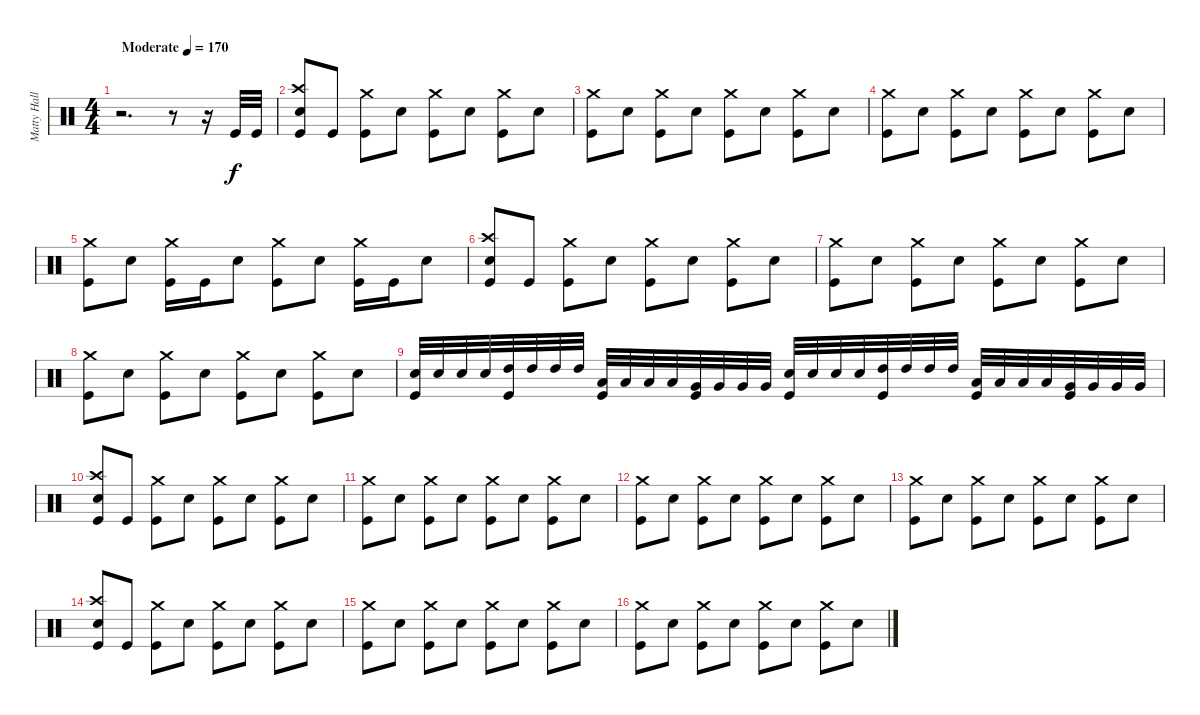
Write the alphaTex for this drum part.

\track ("Matty Hallick - Drums" "Matty Hall") {instrument percussion}
\staff {score}
\articulation defaults
\ts (4 4)
\tempo (170 "Moderate")
\clef neutral
\ks c
r.2{d dy f} r.8 r.16 "Kick (hit)".32 "Kick (hit)".32 |
("Crash high (hit)" "Snare (hit) 2" "Kick (hit)").8 "Kick (hit)".8 ("Crash medium (hit)" "Kick (hit)").8 "Snare (hit) 2".8 ("Crash medium (hit)" "Kick (hit)").8 "Snare (hit) 2".8 ("Crash medium (hit)" "Kick (hit)").8 "Snare (hit) 2".8 |
("Crash medium (hit)" "Kick (hit)").8 "Snare (hit) 2".8 ("Crash medium (hit)" "Kick (hit)").8 "Snare (hit) 2".8 ("Crash medium (hit)" "Kick (hit)").8 "Snare (hit) 2".8 ("Crash medium (hit)" "Kick (hit)").8 "Snare (hit) 2".8 |
("Crash medium (hit)" "Kick (hit)").8 "Snare (hit) 2".8 ("Crash medium (hit)" "Kick (hit)").8 "Snare (hit) 2".8 ("Crash medium (hit)" "Kick (hit)").8 "Snare (hit) 2".8 ("Crash medium (hit)" "Kick (hit)").8 "Snare (hit) 2".8 |
("Crash medium (hit)" "Kick (hit)").8 "Snare (hit) 2".8 ("Crash medium (hit)" "Kick (hit)").16 "Kick (hit)".16 "Snare (hit) 2".8 ("Crash medium (hit)" "Kick (hit)").8 "Snare (hit) 2".8 ("Crash medium (hit)" "Kick (hit)").16 "Kick (hit)".16 "Snare (hit) 2".8 |
("Crash high (hit)" "Snare (hit) 2" "Kick (hit)").8 "Kick (hit)".8 ("Crash medium (hit)" "Kick (hit)").8 "Snare (hit) 2".8 ("Crash medium (hit)" "Kick (hit)").8 "Snare (hit) 2".8 ("Crash medium (hit)" "Kick (hit)").8 "Snare (hit) 2".8 |
("Crash medium (hit)" "Kick (hit)").8 "Snare (hit) 2".8 ("Crash medium (hit)" "Kick (hit)").8 "Snare (hit) 2".8 ("Crash medium (hit)" "Kick (hit)").8 "Snare (hit) 2".8 ("Crash medium (hit)" "Kick (hit)").8 "Snare (hit) 2".8 |
("Crash medium (hit)" "Kick (hit)").8 "Snare (hit) 2".8 ("Crash medium (hit)" "Kick (hit)").8 "Snare (hit) 2".8 ("Crash medium (hit)" "Kick (hit)").8 "Snare (hit) 2".8 ("Crash medium (hit)" "Kick (hit)").8 "Snare (hit) 2".8 |
("Snare (hit) 2" "Kick (hit)").32 "Snare (hit) 2".32 "Snare (hit) 2".32 "Snare (hit) 2".32 ("High Tom (hit)" "Kick (hit)").32 "High Tom (hit)".32 "High Tom (hit)".32 "High Tom (hit)".32 ("Low Tom (hit)" "Kick (hit)").32 "Low Tom (hit)".32 "Low Tom (hit)".32 "Low Tom (hit)".32 ("Very Low Tom (hit)" "Kick (hit)").32 "Very Low Tom (hit)".32 "Very Low Tom (hit)".32 "Very Low Tom (hit)".32 ("Snare (hit) 2" "Kick (hit)").32 "Snare (hit) 2".32 "Snare (hit) 2".32 "Snare (hit) 2".32 ("High Tom (hit)" "Kick (hit)").32 "High Tom (hit)".32 "High Tom (hit)".32 "High Tom (hit)".32 ("Low Tom (hit)" "Kick (hit)").32 "Low Tom (hit)".32 "Low Tom (hit)".32 "Low Tom (hit)".32 ("Very Low Tom (hit)" "Kick (hit)").32 "Very Low Tom (hit)".32 "Very Low Tom (hit)".32 "Very Low Tom (hit)".32 |
("Crash high (hit)" "Snare (hit) 2" "Kick (hit)").8 "Kick (hit)".8 ("Crash medium (hit)" "Kick (hit)").8 "Snare (hit) 2".8 ("Crash medium (hit)" "Kick (hit)").8 "Snare (hit) 2".8 ("Crash medium (hit)" "Kick (hit)").8 "Snare (hit) 2".8 |
("Crash medium (hit)" "Kick (hit)").8 "Snare (hit) 2".8 ("Crash medium (hit)" "Kick (hit)").8 "Snare (hit) 2".8 ("Crash medium (hit)" "Kick (hit)").8 "Snare (hit) 2".8 ("Crash medium (hit)" "Kick (hit)").8 "Snare (hit) 2".8 |
("Crash medium (hit)" "Kick (hit)").8 "Snare (hit) 2".8 ("Crash medium (hit)" "Kick (hit)").8 "Snare (hit) 2".8 ("Crash medium (hit)" "Kick (hit)").8 "Snare (hit) 2".8 ("Crash medium (hit)" "Kick (hit)").8 "Snare (hit) 2".8 |
("Crash medium (hit)" "Kick (hit)").8 "Snare (hit) 2".8 ("Crash medium (hit)" "Kick (hit)").8 "Snare (hit) 2".8 ("Crash medium (hit)" "Kick (hit)").8 "Snare (hit) 2".8 ("Crash medium (hit)" "Kick (hit)").8 "Snare (hit) 2".8 |
("Crash high (hit)" "Snare (hit) 2" "Kick (hit)").8 "Kick (hit)".8 ("Crash medium (hit)" "Kick (hit)").8 "Snare (hit) 2".8 ("Crash medium (hit)" "Kick (hit)").8 "Snare (hit) 2".8 ("Crash medium (hit)" "Kick (hit)").8 "Snare (hit) 2".8 |
("Crash medium (hit)" "Kick (hit)").8 "Snare (hit) 2".8 ("Crash medium (hit)" "Kick (hit)").8 "Snare (hit) 2".8 ("Crash medium (hit)" "Kick (hit)").8 "Snare (hit) 2".8 ("Crash medium (hit)" "Kick (hit)").8 "Snare (hit) 2".8 |
("Crash medium (hit)" "Kick (hit)").8 "Snare (hit) 2".8 ("Crash medium (hit)" "Kick (hit)").8 "Snare (hit) 2".8 ("Crash medium (hit)" "Kick (hit)").8 "Snare (hit) 2".8 ("Crash medium (hit)" "Kick (hit)").8 "Snare (hit) 2".8
